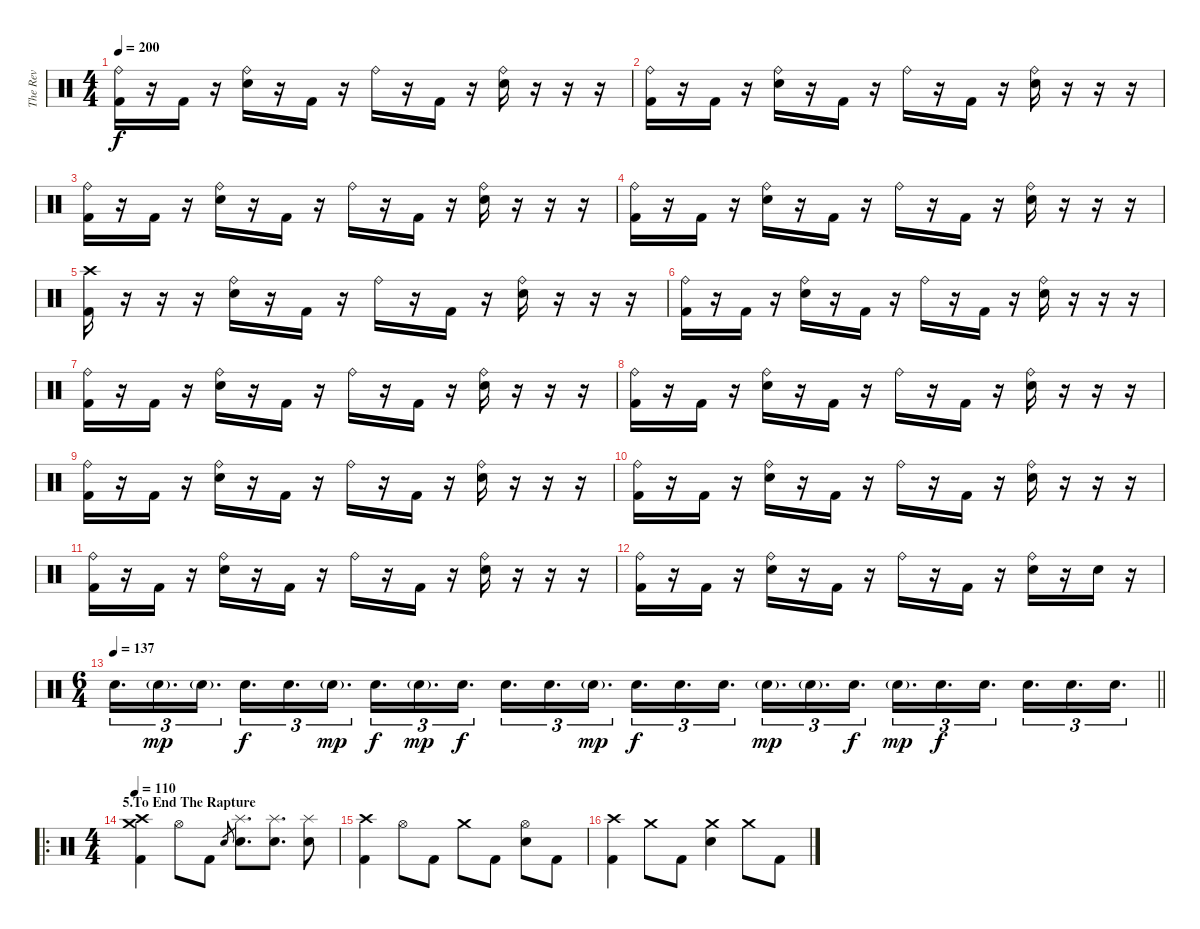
\track ("The Rev" "The Rev") {instrument percussion}
\staff {score}
\articulation defaults
\ts (4 4)
\tempo 200
\clef neutral
\ks c
("Ride (bell)" "Kick (hit) 2").16{dy f} r.16 "Kick (hit) 2".16 r.16 ("Ride (bell)" "Electric Snare (hit)").16 r.16 "Kick (hit) 2".16 r.16 "Ride (bell)".16 r.16 "Kick (hit) 2".16 r.16 ("Ride (bell)" "Electric Snare (hit)").16 r.16 r.16 r.16 |
("Ride (bell)" "Kick (hit) 2").16 r.16 "Kick (hit) 2".16 r.16 ("Ride (bell)" "Electric Snare (hit)").16 r.16 "Kick (hit) 2".16 r.16 "Ride (bell)".16 r.16 "Kick (hit) 2".16 r.16 ("Ride (bell)" "Electric Snare (hit)").16 r.16 r.16 r.16 |
("Ride (bell)" "Kick (hit) 2").16 r.16 "Kick (hit) 2".16 r.16 ("Ride (bell)" "Electric Snare (hit)").16 r.16 "Kick (hit) 2".16 r.16 "Ride (bell)".16 r.16 "Kick (hit) 2".16 r.16 ("Ride (bell)" "Electric Snare (hit)").16 r.16 r.16 r.16 |
("Ride (bell)" "Kick (hit) 2").16 r.16 "Kick (hit) 2".16 r.16 ("Ride (bell)" "Electric Snare (hit)").16 r.16 "Kick (hit) 2".16 r.16 "Ride (bell)".16 r.16 "Kick (hit) 2".16 r.16 ("Ride (bell)" "Electric Snare (hit)").16 r.16 r.16 r.16 |
("Crash high (hit)" "Kick (hit) 2").16 r.16 r.16 r.16 ("Ride (bell)" "Electric Snare (hit)").16 r.16 "Kick (hit) 2".16 r.16 "Ride (bell)".16 r.16 "Kick (hit) 2".16 r.16 ("Ride (bell)" "Electric Snare (hit)").16 r.16 r.16 r.16 |
("Ride (bell)" "Kick (hit) 2").16 r.16 "Kick (hit) 2".16 r.16 ("Ride (bell)" "Electric Snare (hit)").16 r.16 "Kick (hit) 2".16 r.16 "Ride (bell)".16 r.16 "Kick (hit) 2".16 r.16 ("Ride (bell)" "Electric Snare (hit)").16 r.16 r.16 r.16 |
("Ride (bell)" "Kick (hit) 2").16 r.16 "Kick (hit) 2".16 r.16 ("Ride (bell)" "Electric Snare (hit)").16 r.16 "Kick (hit) 2".16 r.16 "Ride (bell)".16 r.16 "Kick (hit) 2".16 r.16 ("Ride (bell)" "Electric Snare (hit)").16 r.16 r.16 r.16 |
("Ride (bell)" "Kick (hit) 2").16 r.16 "Kick (hit) 2".16 r.16 ("Ride (bell)" "Electric Snare (hit)").16 r.16 "Kick (hit) 2".16 r.16 "Ride (bell)".16 r.16 "Kick (hit) 2".16 r.16 ("Ride (bell)" "Electric Snare (hit)").16 r.16 r.16 r.16 |
("Ride (bell)" "Kick (hit) 2").16 r.16 "Kick (hit) 2".16 r.16 ("Ride (bell)" "Electric Snare (hit)").16 r.16 "Kick (hit) 2".16 r.16 "Ride (bell)".16 r.16 "Kick (hit) 2".16 r.16 ("Ride (bell)" "Electric Snare (hit)").16 r.16 r.16 r.16 |
("Ride (bell)" "Kick (hit) 2").16 r.16 "Kick (hit) 2".16 r.16 ("Ride (bell)" "Electric Snare (hit)").16 r.16 "Kick (hit) 2".16 r.16 "Ride (bell)".16 r.16 "Kick (hit) 2".16 r.16 ("Ride (bell)" "Electric Snare (hit)").16 r.16 r.16 r.16 |
("Ride (bell)" "Kick (hit) 2").16 r.16 "Kick (hit) 2".16 r.16 ("Ride (bell)" "Electric Snare (hit)").16 r.16 "Kick (hit) 2".16 r.16 "Ride (bell)".16 r.16 "Kick (hit) 2".16 r.16 ("Ride (bell)" "Electric Snare (hit)").16 r.16 r.16 r.16 |
("Ride (bell)" "Kick (hit) 2").16 r.16 "Kick (hit) 2".16 r.16 ("Ride (bell)" "Electric Snare (hit)").16 r.16 "Kick (hit) 2".16 r.16 "Ride (bell)".16 r.16 "Kick (hit) 2".16 r.16 ("Ride (bell)" "Electric Snare (hit)").16 r.16 "Electric Snare (hit)".16 r.16 |
\ts (6 4)
\tempo 137
\barLineRight lightlight "Electric Snare (hit)".16{d tu (3 2)} "Electric Snare (hit)"{g}.16{d tu (3 2) dy mp} "Electric Snare (hit)"{g}.16{d tu (3 2)} "Electric Snare (hit)".16{d tu (3 2) dy f} "Electric Snare (hit)".16{d tu (3 2)} "Electric Snare (hit)"{g}.16{d tu (3 2) dy mp} "Electric Snare (hit)".16{d tu (3 2) dy f} "Electric Snare (hit)"{g}.16{d tu (3 2) dy mp} "Electric Snare (hit)".16{d tu (3 2) dy f} "Electric Snare (hit)".16{d tu (3 2)} "Electric Snare (hit)".16{d tu (3 2)} "Electric Snare (hit)"{g}.16{d tu (3 2) dy mp} "Electric Snare (hit)".16{d tu (3 2) dy f} "Electric Snare (hit)".16{d tu (3 2)} "Electric Snare (hit)".16{d tu (3 2)} "Electric Snare (hit)"{g}.16{d tu (3 2) dy mp} "Electric Snare (hit)"{g}.16{d tu (3 2)} "Electric Snare (hit)".16{d tu (3 2) dy f} "Electric Snare (hit)"{g}.16{d tu (3 2) dy mp} "Electric Snare (hit)".16{d tu (3 2) dy f} "Electric Snare (hit)".16{d tu (3 2)} "Electric Snare (hit)".16{d tu (3 2)} "Electric Snare (hit)".16{d tu (3 2)} "Electric Snare (hit)".16{d tu (3 2)}
|
\ro
\ts (4 4)
\section ("" "5.To End The Rapture")
\tempo 110
("Crash medium (hit)" "Crash high (hit)" "Kick (hit) 2").4 "Hi-Hat (open)".8 "Kick (hit) 2".8 "Electric Snare (hit)".8{gr} ("Splash (hit)" "Electric Snare (hit)").8{d} ("Splash (hit)" "Electric Snare (hit)").8{d} ("Splash (hit)" "Electric Snare (hit)").8 |
("Crash high (hit)" "Kick (hit) 2").4 "Hi-Hat (open)".8 "Kick (hit) 2".8 "Crash medium (hit)".8 "Kick (hit) 2".8 ("Hi-Hat (open)" "Electric Snare (hit)").8 "Kick (hit) 2".8 |
("Crash high (hit)" "Kick (hit) 2").4 "Crash medium (hit)".8 "Kick (hit) 2".8 ("Crash medium (hit)" "Electric Snare (hit)").4 "Crash medium (hit)".8 "Kick (hit) 2".8
